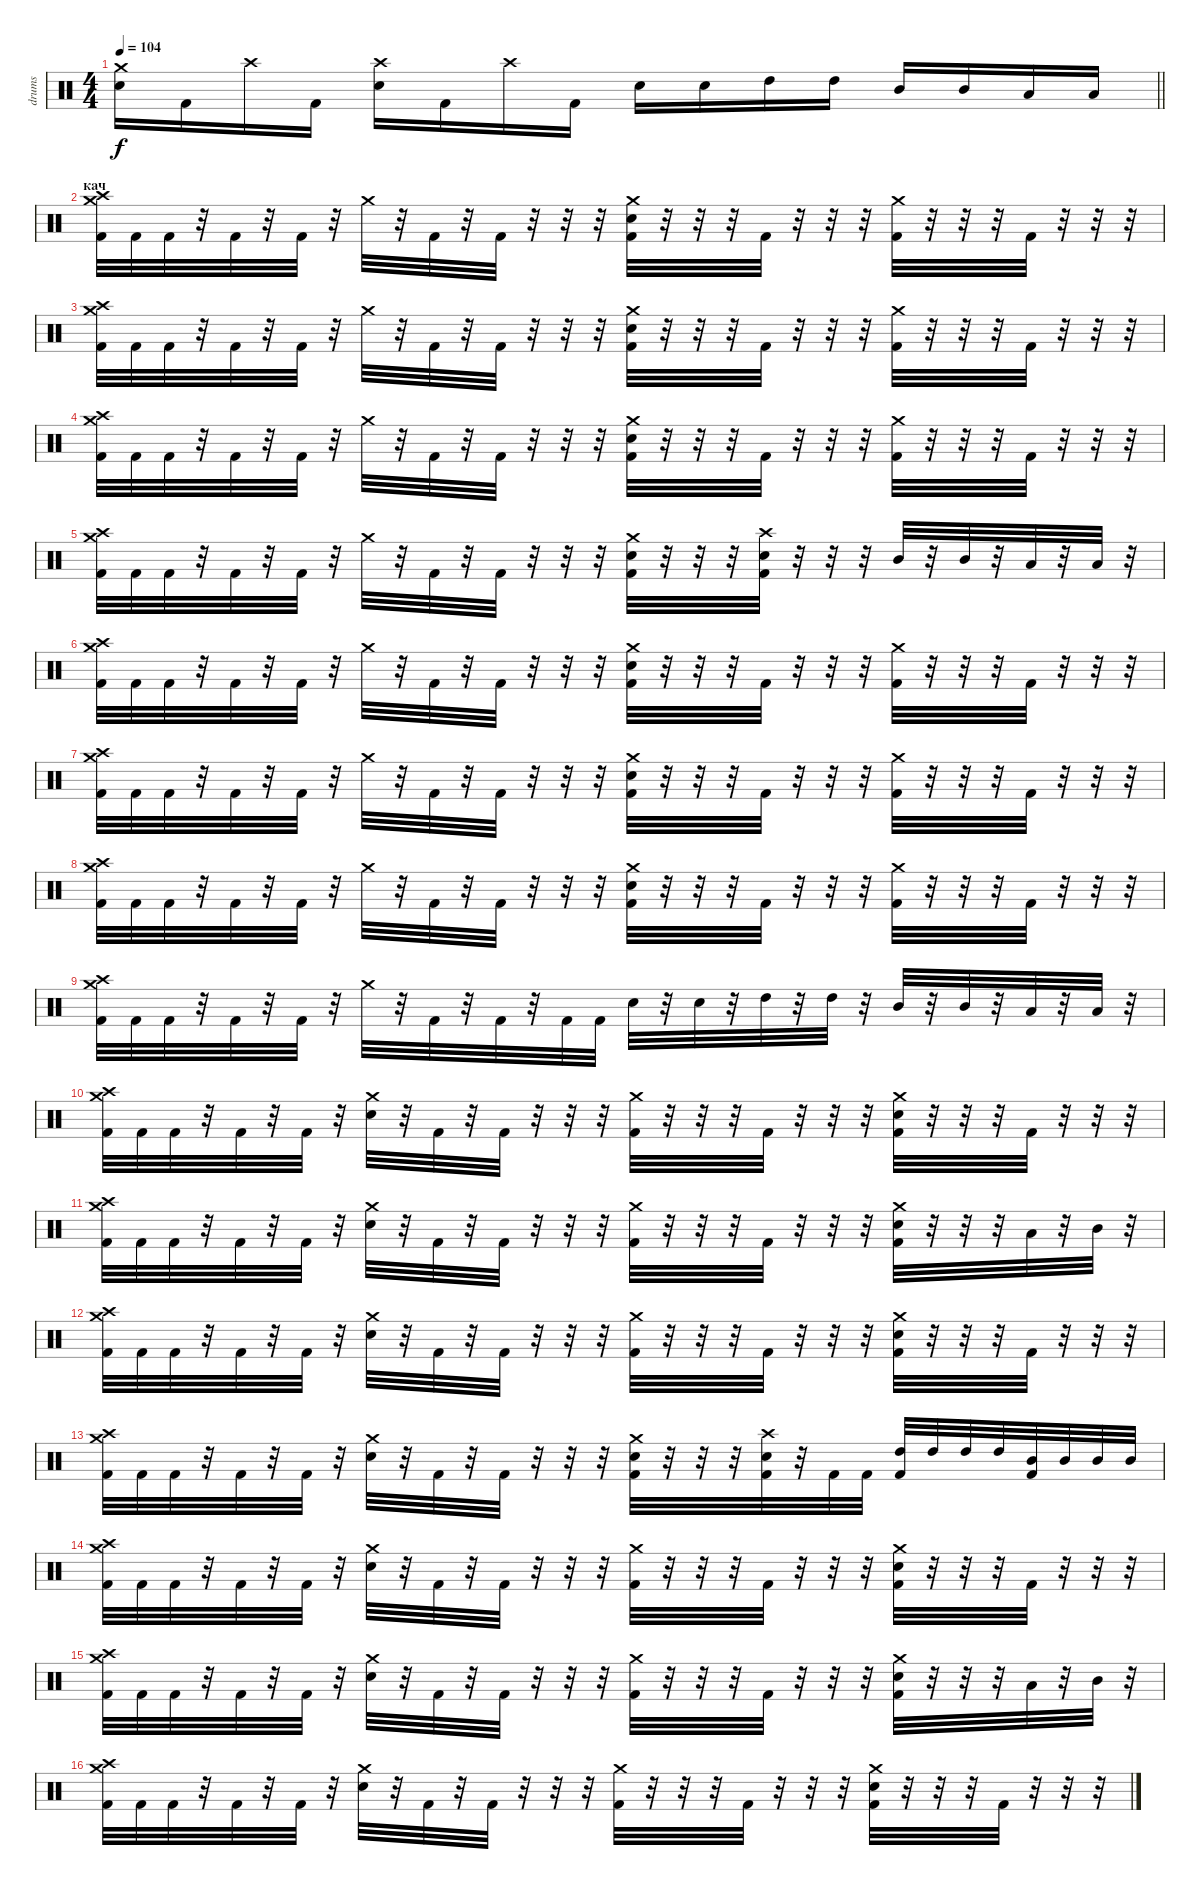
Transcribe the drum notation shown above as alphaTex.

\track ("drums" "drums") {instrument percussion}
\staff {score}
\articulation defaults
\ts (4 4)
\tempo 104
\clef neutral
\barLineRight lightlight
\ks c
("Crash medium (hit)" "Electric Snare (hit)").16{dy f} "Kick (hit) 2".16 "Crash high (hit)".16 "Kick (hit) 2".16 ("Crash high (hit)" "Electric Snare (hit)").16 "Kick (hit) 2".16 "Crash high (hit)".16 "Kick (hit) 2".16 "Electric Snare (hit)".16 "Electric Snare (hit)".16 "High Tom (hit)".16 "High Tom (hit)".16 "Mid Tom (hit)".16 "Mid Tom (hit)".16 "Low Floor Tom (hit)".16 "Low Floor Tom (hit)".16 |
\section ("" "кач")
("Crash medium (hit)" "Crash high (hit)" "Kick (hit) 2").32 "Kick (hit) 2".32 "Kick (hit) 2".32 r.32 "Kick (hit) 2".32 r.32 "Kick (hit) 2".32 r.32 "Crash medium (hit)".32 r.32 "Kick (hit) 2".32 r.32 "Kick (hit) 2".32 r.32 r.32 r.32 ("Crash medium (hit)" "Electric Snare (hit)" "Kick (hit) 2").32 r.32 r.32 r.32 "Kick (hit) 2".32 r.32 r.32 r.32 ("Crash medium (hit)" "Kick (hit) 2").32 r.32 r.32 r.32 "Kick (hit) 2".32 r.32 r.32 r.32 |
("Crash medium (hit)" "Crash high (hit)" "Kick (hit) 2").32 "Kick (hit) 2".32 "Kick (hit) 2".32 r.32 "Kick (hit) 2".32 r.32 "Kick (hit) 2".32 r.32 "Crash medium (hit)".32 r.32 "Kick (hit) 2".32 r.32 "Kick (hit) 2".32 r.32 r.32 r.32 ("Crash medium (hit)" "Electric Snare (hit)" "Kick (hit) 2").32 r.32 r.32 r.32 "Kick (hit) 2".32 r.32 r.32 r.32 ("Crash medium (hit)" "Kick (hit) 2").32 r.32 r.32 r.32 "Kick (hit) 2".32 r.32 r.32 r.32 |
("Crash medium (hit)" "Crash high (hit)" "Kick (hit) 2").32 "Kick (hit) 2".32 "Kick (hit) 2".32 r.32 "Kick (hit) 2".32 r.32 "Kick (hit) 2".32 r.32 "Crash medium (hit)".32 r.32 "Kick (hit) 2".32 r.32 "Kick (hit) 2".32 r.32 r.32 r.32 ("Crash medium (hit)" "Electric Snare (hit)" "Kick (hit) 2").32 r.32 r.32 r.32 "Kick (hit) 2".32 r.32 r.32 r.32 ("Crash medium (hit)" "Kick (hit) 2").32 r.32 r.32 r.32 "Kick (hit) 2".32 r.32 r.32 r.32 |
("Crash medium (hit)" "Crash high (hit)" "Kick (hit) 2").32 "Kick (hit) 2".32 "Kick (hit) 2".32 r.32 "Kick (hit) 2".32 r.32 "Kick (hit) 2".32 r.32 "Crash medium (hit)".32 r.32 "Kick (hit) 2".32 r.32 "Kick (hit) 2".32 r.32 r.32 r.32 ("Crash medium (hit)" "Electric Snare (hit)" "Kick (hit) 2").32 r.32 r.32 r.32 ("Crash high (hit)" "Electric Snare (hit)" "Kick (hit) 2").32 r.32 r.32 r.32 "Mid Tom (hit)".32 r.32 "Mid Tom (hit)".32 r.32 "Low Floor Tom (hit)".32 r.32 "Low Floor Tom (hit)".32 r.32 |
("Crash medium (hit)" "Crash high (hit)" "Kick (hit) 2").32 "Kick (hit) 2".32 "Kick (hit) 2".32 r.32 "Kick (hit) 2".32 r.32 "Kick (hit) 2".32 r.32 "Crash medium (hit)".32 r.32 "Kick (hit) 2".32 r.32 "Kick (hit) 2".32 r.32 r.32 r.32 ("Crash medium (hit)" "Electric Snare (hit)" "Kick (hit) 2").32 r.32 r.32 r.32 "Kick (hit) 2".32 r.32 r.32 r.32 ("Crash medium (hit)" "Kick (hit) 2").32 r.32 r.32 r.32 "Kick (hit) 2".32 r.32 r.32 r.32 |
("Crash medium (hit)" "Crash high (hit)" "Kick (hit) 2").32 "Kick (hit) 2".32 "Kick (hit) 2".32 r.32 "Kick (hit) 2".32 r.32 "Kick (hit) 2".32 r.32 "Crash medium (hit)".32 r.32 "Kick (hit) 2".32 r.32 "Kick (hit) 2".32 r.32 r.32 r.32 ("Crash medium (hit)" "Electric Snare (hit)" "Kick (hit) 2").32 r.32 r.32 r.32 "Kick (hit) 2".32 r.32 r.32 r.32 ("Crash medium (hit)" "Kick (hit) 2").32 r.32 r.32 r.32 "Kick (hit) 2".32 r.32 r.32 r.32 |
("Crash medium (hit)" "Crash high (hit)" "Kick (hit) 2").32 "Kick (hit) 2".32 "Kick (hit) 2".32 r.32 "Kick (hit) 2".32 r.32 "Kick (hit) 2".32 r.32 "Crash medium (hit)".32 r.32 "Kick (hit) 2".32 r.32 "Kick (hit) 2".32 r.32 r.32 r.32 ("Crash medium (hit)" "Electric Snare (hit)" "Kick (hit) 2").32 r.32 r.32 r.32 "Kick (hit) 2".32 r.32 r.32 r.32 ("Crash medium (hit)" "Kick (hit) 2").32 r.32 r.32 r.32 "Kick (hit) 2".32 r.32 r.32 r.32 |
("Crash medium (hit)" "Crash high (hit)" "Kick (hit) 2").32 "Kick (hit) 2".32 "Kick (hit) 2".32 r.32 "Kick (hit) 2".32 r.32 "Kick (hit) 2".32 r.32 "Crash medium (hit)".32 r.32 "Kick (hit) 2".32 r.32 "Kick (hit) 2".32 r.32 "Kick (hit) 2".32 "Kick (hit) 2".32 "Electric Snare (hit)".32 r.32 "Electric Snare (hit)".32 r.32 "High Tom (hit)".32 r.32 "High Tom (hit)".32 r.32 "Mid Tom (hit)".32 r.32 "Mid Tom (hit)".32 r.32 "Low Floor Tom (hit)".32 r.32 "Low Floor Tom (hit)".32 r.32 |
("Crash medium (hit)" "Crash high (hit)" "Kick (hit) 2").32 "Kick (hit) 2".32 "Kick (hit) 2".32 r.32 "Kick (hit) 2".32 r.32 "Kick (hit) 2".32 r.32 ("Crash medium (hit)" "Electric Snare (hit)").32 r.32 "Kick (hit) 2".32 r.32 "Kick (hit) 2".32 r.32 r.32 r.32 ("Crash medium (hit)" "Kick (hit) 2").32 r.32 r.32 r.32 "Kick (hit) 2".32 r.32 r.32 r.32 ("Crash medium (hit)" "Electric Snare (hit)" "Kick (hit) 2").32 r.32 r.32 r.32 "Kick (hit) 2".32 r.32 r.32 r.32 |
("Crash medium (hit)" "Crash high (hit)" "Kick (hit) 2").32 "Kick (hit) 2".32 "Kick (hit) 2".32 r.32 "Kick (hit) 2".32 r.32 "Kick (hit) 2".32 r.32 ("Crash medium (hit)" "Electric Snare (hit)").32 r.32 "Kick (hit) 2".32 r.32 "Kick (hit) 2".32 r.32 r.32 r.32 ("Crash medium (hit)" "Kick (hit) 2").32 r.32 r.32 r.32 "Kick (hit) 2".32 r.32 r.32 r.32 ("Crash medium (hit)" "Electric Snare (hit)" "Kick (hit) 2").32 r.32 r.32 r.32 "Low Floor Tom (hit)".32 r.32 "Mid Tom (hit)".32 r.32 |
("Crash medium (hit)" "Crash high (hit)" "Kick (hit) 2").32 "Kick (hit) 2".32 "Kick (hit) 2".32 r.32 "Kick (hit) 2".32 r.32 "Kick (hit) 2".32 r.32 ("Crash medium (hit)" "Electric Snare (hit)").32 r.32 "Kick (hit) 2".32 r.32 "Kick (hit) 2".32 r.32 r.32 r.32 ("Crash medium (hit)" "Kick (hit) 2").32 r.32 r.32 r.32 "Kick (hit) 2".32 r.32 r.32 r.32 ("Crash medium (hit)" "Electric Snare (hit)" "Kick (hit) 2").32 r.32 r.32 r.32 "Kick (hit) 2".32 r.32 r.32 r.32 |
("Crash medium (hit)" "Crash high (hit)" "Kick (hit) 2").32 "Kick (hit) 2".32 "Kick (hit) 2".32 r.32 "Kick (hit) 2".32 r.32 "Kick (hit) 2".32 r.32 ("Crash medium (hit)" "Electric Snare (hit)").32 r.32 "Kick (hit) 2".32 r.32 "Kick (hit) 2".32 r.32 r.32 r.32 ("Crash medium (hit)" "Electric Snare (hit)" "Kick (hit) 2").32 r.32 r.32 r.32 ("Crash high (hit)" "Electric Snare (hit)" "Kick (hit) 2").32 r.32 "Kick (hit) 2".32 "Kick (hit) 2".32 ("High Tom (hit)" "Kick (hit) 2").32 "High Tom (hit)".32 "High Tom (hit)".32 "High Tom (hit)".32 ("Mid Tom (hit)" "Kick (hit) 2").32 "Mid Tom (hit)".32 "Mid Tom (hit)".32 "Mid Tom (hit)".32 |
("Crash medium (hit)" "Crash high (hit)" "Kick (hit) 2").32 "Kick (hit) 2".32 "Kick (hit) 2".32 r.32 "Kick (hit) 2".32 r.32 "Kick (hit) 2".32 r.32 ("Crash medium (hit)" "Electric Snare (hit)").32 r.32 "Kick (hit) 2".32 r.32 "Kick (hit) 2".32 r.32 r.32 r.32 ("Crash medium (hit)" "Kick (hit) 2").32 r.32 r.32 r.32 "Kick (hit) 2".32 r.32 r.32 r.32 ("Crash medium (hit)" "Electric Snare (hit)" "Kick (hit) 2").32 r.32 r.32 r.32 "Kick (hit) 2".32 r.32 r.32 r.32 |
("Crash medium (hit)" "Crash high (hit)" "Kick (hit) 2").32 "Kick (hit) 2".32 "Kick (hit) 2".32 r.32 "Kick (hit) 2".32 r.32 "Kick (hit) 2".32 r.32 ("Crash medium (hit)" "Electric Snare (hit)").32 r.32 "Kick (hit) 2".32 r.32 "Kick (hit) 2".32 r.32 r.32 r.32 ("Crash medium (hit)" "Kick (hit) 2").32 r.32 r.32 r.32 "Kick (hit) 2".32 r.32 r.32 r.32 ("Crash medium (hit)" "Electric Snare (hit)" "Kick (hit) 2").32 r.32 r.32 r.32 "Low Floor Tom (hit)".32 r.32 "Mid Tom (hit)".32 r.32 |
("Crash medium (hit)" "Crash high (hit)" "Kick (hit) 2").32 "Kick (hit) 2".32 "Kick (hit) 2".32 r.32 "Kick (hit) 2".32 r.32 "Kick (hit) 2".32 r.32 ("Crash medium (hit)" "Electric Snare (hit)").32 r.32 "Kick (hit) 2".32 r.32 "Kick (hit) 2".32 r.32 r.32 r.32 ("Crash medium (hit)" "Kick (hit) 2").32 r.32 r.32 r.32 "Kick (hit) 2".32 r.32 r.32 r.32 ("Crash medium (hit)" "Electric Snare (hit)" "Kick (hit) 2").32 r.32 r.32 r.32 "Kick (hit) 2".32 r.32 r.32 r.32
